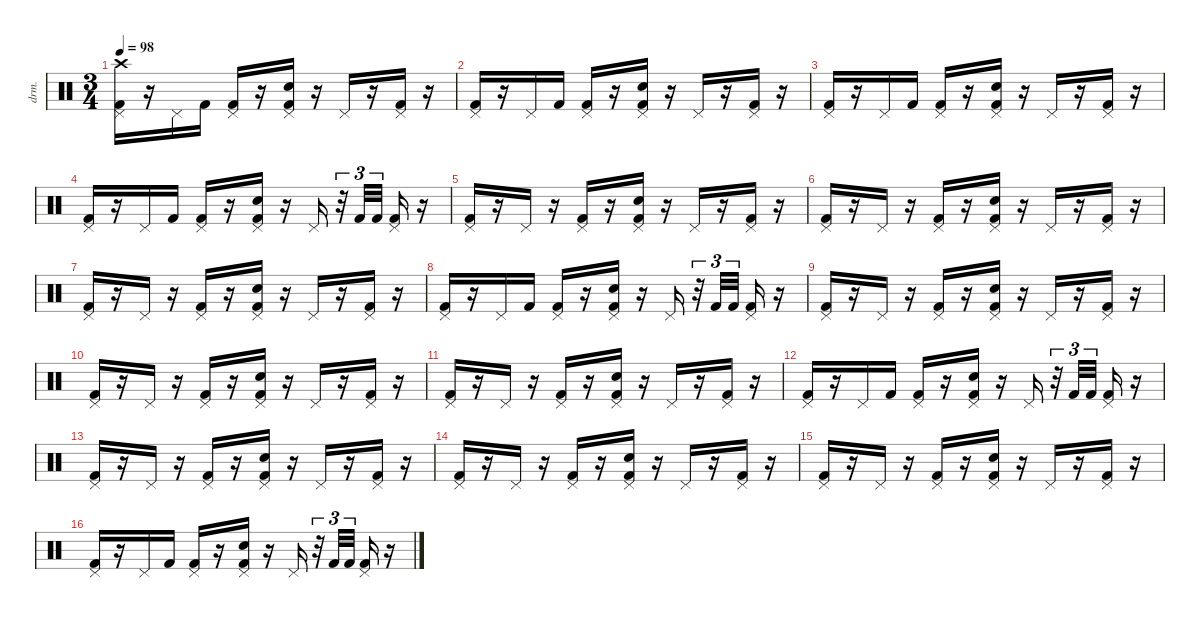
\defaultSystemsLayout 4
\hideDynamics
\bracketExtendMode nobrackets
\otherSystemsTrackNameOrientation horizontal
\track ("Ударные" "drm.") {instrument percussion}
\staff {score}
\articulation defaults
\ts (3 4)
\tempo 98
\clef neutral
\ks c
("Crash high (hit)" "Kick (hit) 2" "Pedal Hi-Hat (hit)").16{dy f beam Down} r.16{beam Down} "Pedal Hi-Hat (hit)".16{beam Down} "Kick (hit) 2".16{dy mf beam Down} ("Kick (hit) 2" "Pedal Hi-Hat (hit)").16{dy f beam Up} r.16{beam Up} ("Snare (hit) 2" "Kick (hit) 2" "Pedal Hi-Hat (hit)").16{beam Up} r.16{beam Up} "Pedal Hi-Hat (hit)".16{beam Up} r.16{beam Up} ("Kick (hit) 2" "Pedal Hi-Hat (hit)").16{beam Up} r.16{beam Up} |
("Kick (hit) 2" "Pedal Hi-Hat (hit)").16{beam Up} r.16{beam Up} "Pedal Hi-Hat (hit)".16{beam Up} "Kick (hit) 2".16{dy mf beam Up} ("Kick (hit) 2" "Pedal Hi-Hat (hit)").16{dy f beam Up} r.16{beam Up} ("Snare (hit) 2" "Kick (hit) 2" "Pedal Hi-Hat (hit)").16{beam Up} r.16{beam Up} "Pedal Hi-Hat (hit)".16{beam Up} r.16{beam Up} ("Kick (hit) 2" "Pedal Hi-Hat (hit)").16{beam Up} r.16{beam Up} |
("Kick (hit) 2" "Pedal Hi-Hat (hit)").16{beam Up} r.16{beam Up} "Pedal Hi-Hat (hit)".16{beam Up} "Kick (hit) 2".16{dy mf beam Up} ("Kick (hit) 2" "Pedal Hi-Hat (hit)").16{dy f beam Up} r.16{beam Up} ("Snare (hit) 2" "Kick (hit) 2" "Pedal Hi-Hat (hit)").16{beam Up} r.16{beam Up} "Pedal Hi-Hat (hit)".16{beam Up} r.16{beam Up} ("Kick (hit) 2" "Pedal Hi-Hat (hit)").16{beam Up} r.16{beam Up} |
("Kick (hit) 2" "Pedal Hi-Hat (hit)").16{beam Up} r.16{beam Up} "Pedal Hi-Hat (hit)".16{beam Up} "Kick (hit) 2".16{dy mf beam Up} ("Kick (hit) 2" "Pedal Hi-Hat (hit)").16{dy f beam Up} r.16{beam Up} ("Snare (hit) 2" "Kick (hit) 2" "Pedal Hi-Hat (hit)").16{beam Up} r.16{beam Up} "Pedal Hi-Hat (hit)".16{dy mf beam Up} r.32{tu (3 2) beam Up} "Kick (hit) 2".32{tu (3 2) beam Up} "Kick (hit) 2".32{tu (3 2) beam Up} ("Kick (hit) 2" "Pedal Hi-Hat (hit)").16{beam Up} r.16{beam Up} |
("Kick (hit) 2" "Pedal Hi-Hat (hit)").16{dy f beam Up} r.16{beam Up} "Pedal Hi-Hat (hit)".16{beam Up} r.16{beam Up} ("Kick (hit) 2" "Pedal Hi-Hat (hit)").16{beam Up} r.16{beam Up} ("Snare (hit) 2" "Kick (hit) 2" "Pedal Hi-Hat (hit)").16{beam Up} r.16{beam Up} "Pedal Hi-Hat (hit)".16{beam Up} r.16{beam Up} ("Kick (hit) 2" "Pedal Hi-Hat (hit)").16{beam Up} r.16{beam Up} |
("Kick (hit) 2" "Pedal Hi-Hat (hit)").16{beam Up} r.16{beam Up} "Pedal Hi-Hat (hit)".16{beam Up} r.16{beam Up} ("Kick (hit) 2" "Pedal Hi-Hat (hit)").16{beam Up} r.16{beam Up} ("Snare (hit) 2" "Kick (hit) 2" "Pedal Hi-Hat (hit)").16{beam Up} r.16{beam Up} "Pedal Hi-Hat (hit)".16{beam Up} r.16{beam Up} ("Kick (hit) 2" "Pedal Hi-Hat (hit)").16{beam Up} r.16{beam Up} |
("Kick (hit) 2" "Pedal Hi-Hat (hit)").16{beam Up} r.16{beam Up} "Pedal Hi-Hat (hit)".16{beam Up} r.16{beam Up} ("Kick (hit) 2" "Pedal Hi-Hat (hit)").16{beam Up} r.16{beam Up} ("Snare (hit) 2" "Kick (hit) 2" "Pedal Hi-Hat (hit)").16{beam Up} r.16{beam Up} "Pedal Hi-Hat (hit)".16{beam Up} r.16{beam Up} ("Kick (hit) 2" "Pedal Hi-Hat (hit)").16{beam Up} r.16{beam Up} |
("Kick (hit) 2" "Pedal Hi-Hat (hit)").16{beam Up} r.16{beam Up} "Pedal Hi-Hat (hit)".16{beam Up} "Kick (hit) 2".16{dy mf beam Up} ("Kick (hit) 2" "Pedal Hi-Hat (hit)").16{dy f beam Up} r.16{beam Up} ("Snare (hit) 2" "Kick (hit) 2" "Pedal Hi-Hat (hit)").16{beam Up} r.16{beam Up} "Pedal Hi-Hat (hit)".16{dy mf beam Up} r.32{tu (3 2) beam Up} "Kick (hit) 2".32{tu (3 2) beam Up} "Kick (hit) 2".32{tu (3 2) beam Up} ("Kick (hit) 2" "Pedal Hi-Hat (hit)").16{beam Up} r.16{beam Up} |
("Kick (hit) 2" "Pedal Hi-Hat (hit)").16{dy f beam Up} r.16{beam Up} "Pedal Hi-Hat (hit)".16{beam Up} r.16{beam Up} ("Kick (hit) 2" "Pedal Hi-Hat (hit)").16{beam Up} r.16{beam Up} ("Snare (hit) 2" "Kick (hit) 2" "Pedal Hi-Hat (hit)").16{beam Up} r.16{beam Up} "Pedal Hi-Hat (hit)".16{beam Up} r.16{beam Up} ("Kick (hit) 2" "Pedal Hi-Hat (hit)").16{beam Up} r.16{beam Up} |
("Kick (hit) 2" "Pedal Hi-Hat (hit)").16{beam Up} r.16{beam Up} "Pedal Hi-Hat (hit)".16{beam Up} r.16{beam Up} ("Kick (hit) 2" "Pedal Hi-Hat (hit)").16{beam Up} r.16{beam Up} ("Snare (hit) 2" "Kick (hit) 2" "Pedal Hi-Hat (hit)").16{beam Up} r.16{beam Up} "Pedal Hi-Hat (hit)".16{beam Up} r.16{beam Up} ("Kick (hit) 2" "Pedal Hi-Hat (hit)").16{beam Up} r.16{beam Up} |
("Kick (hit) 2" "Pedal Hi-Hat (hit)").16{beam Up} r.16{beam Up} "Pedal Hi-Hat (hit)".16{beam Up} r.16{beam Up} ("Kick (hit) 2" "Pedal Hi-Hat (hit)").16{beam Up} r.16{beam Up} ("Snare (hit) 2" "Kick (hit) 2" "Pedal Hi-Hat (hit)").16{beam Up} r.16{beam Up} "Pedal Hi-Hat (hit)".16{beam Up} r.16{beam Up} ("Kick (hit) 2" "Pedal Hi-Hat (hit)").16{beam Up} r.16{beam Up} |
("Kick (hit) 2" "Pedal Hi-Hat (hit)").16{beam Up} r.16{beam Up} "Pedal Hi-Hat (hit)".16{beam Up} "Kick (hit) 2".16{dy mf beam Up} ("Kick (hit) 2" "Pedal Hi-Hat (hit)").16{dy f beam Up} r.16{beam Up} ("Snare (hit) 2" "Kick (hit) 2" "Pedal Hi-Hat (hit)").16{beam Up} r.16{beam Up} "Pedal Hi-Hat (hit)".16{dy mf beam Up} r.32{tu (3 2) beam Up} "Kick (hit) 2".32{tu (3 2) beam Up} "Kick (hit) 2".32{tu (3 2) beam Up} ("Kick (hit) 2" "Pedal Hi-Hat (hit)").16{beam Up} r.16{beam Up} |
("Kick (hit) 2" "Pedal Hi-Hat (hit)").16{dy f beam Up} r.16{beam Up} "Pedal Hi-Hat (hit)".16{beam Up} r.16{beam Up} ("Kick (hit) 2" "Pedal Hi-Hat (hit)").16{beam Up} r.16{beam Up} ("Snare (hit) 2" "Kick (hit) 2" "Pedal Hi-Hat (hit)").16{beam Up} r.16{beam Up} "Pedal Hi-Hat (hit)".16{beam Up} r.16{beam Up} ("Kick (hit) 2" "Pedal Hi-Hat (hit)").16{beam Up} r.16{beam Up} |
("Kick (hit) 2" "Pedal Hi-Hat (hit)").16{beam Up} r.16{beam Up} "Pedal Hi-Hat (hit)".16{beam Up} r.16{beam Up} ("Kick (hit) 2" "Pedal Hi-Hat (hit)").16{beam Up} r.16{beam Up} ("Snare (hit) 2" "Kick (hit) 2" "Pedal Hi-Hat (hit)").16{beam Up} r.16{beam Up} "Pedal Hi-Hat (hit)".16{beam Up} r.16{beam Up} ("Kick (hit) 2" "Pedal Hi-Hat (hit)").16{beam Up} r.16{beam Up} |
("Kick (hit) 2" "Pedal Hi-Hat (hit)").16{beam Up} r.16{beam Up} "Pedal Hi-Hat (hit)".16{beam Up} r.16{beam Up} ("Kick (hit) 2" "Pedal Hi-Hat (hit)").16{beam Up} r.16{beam Up} ("Snare (hit) 2" "Kick (hit) 2" "Pedal Hi-Hat (hit)").16{beam Up} r.16{beam Up} "Pedal Hi-Hat (hit)".16{beam Up} r.16{beam Up} ("Kick (hit) 2" "Pedal Hi-Hat (hit)").16{beam Up} r.16{beam Up} |
("Kick (hit) 2" "Pedal Hi-Hat (hit)").16{beam Up} r.16{beam Up} "Pedal Hi-Hat (hit)".16{beam Up} "Kick (hit) 2".16{dy mf beam Up} ("Kick (hit) 2" "Pedal Hi-Hat (hit)").16{dy f beam Up} r.16{beam Up} ("Snare (hit) 2" "Kick (hit) 2" "Pedal Hi-Hat (hit)").16{beam Up} r.16{beam Up} "Pedal Hi-Hat (hit)".16{dy mf beam Up} r.32{tu (3 2) beam Up} "Kick (hit) 2".32{tu (3 2) beam Up} "Kick (hit) 2".32{tu (3 2) beam Up} ("Kick (hit) 2" "Pedal Hi-Hat (hit)").16{beam Up} r.16{beam Up}
